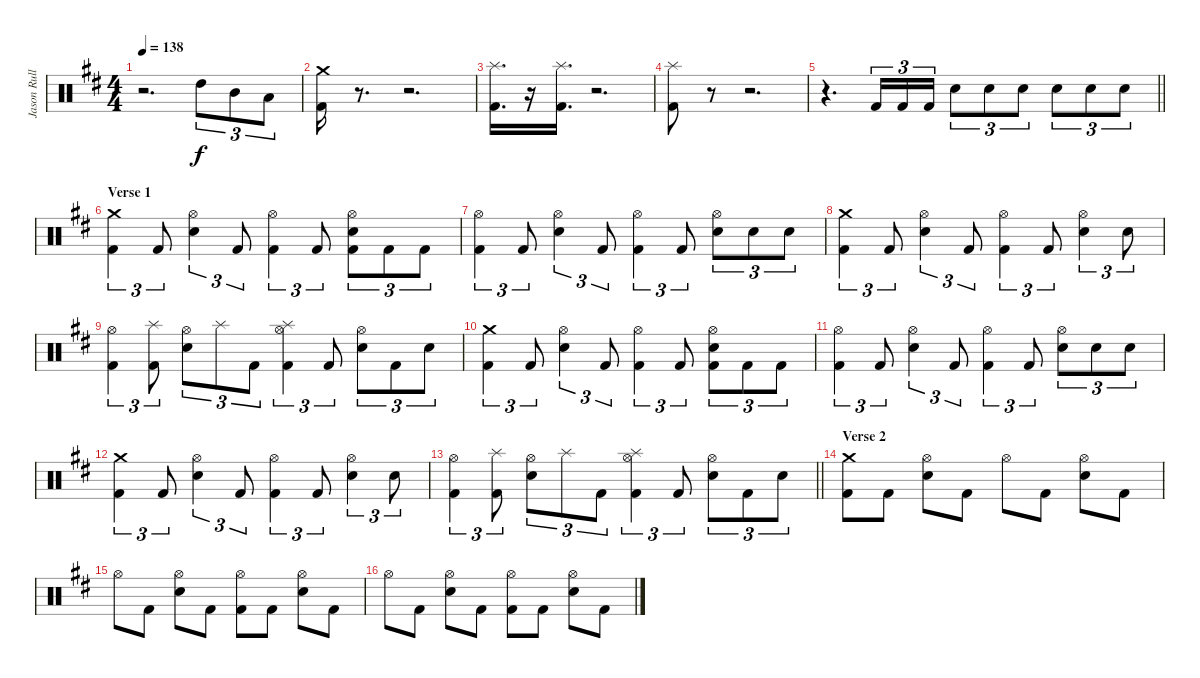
\track ("Jason Rullo (drums)" "Jason Rull") {instrument percussion}
\staff {score}
\articulation defaults
\ts (4 4)
\tempo 138
\clef neutral
\ks bminor
r.2{d dy f} "High Tom (hit)".8{tu (3 2)} "Mid Tom (hit)".8{tu (3 2)} "Low Tom (hit)".8{tu (3 2)} |
("Crash medium (hit)" "Kick (hit) 2").16 r.8{d} r.2{d} |
("Splash (hit)" "Kick (hit) 2").16{d} r.16 ("Splash (hit)" "Kick (hit) 2").16{d} r.2{d} |
("Splash (hit)" "Kick (hit) 2").8 r.8 r.2{d} |
\barLineRight lightlight
r.4{d} "Kick (hit) 2".16{tu (3 2)} "Kick (hit) 2".16{tu (3 2)} "Kick (hit) 2".16{tu (3 2)} "Electric Snare (hit)".8{tu (3 2)} "Electric Snare (hit)".8{tu (3 2)} "Electric Snare (hit)".8{tu (3 2)} "Electric Snare (hit)".8{tu (3 2)} "Electric Snare (hit)".8{tu (3 2)} "Electric Snare (hit)".8{tu (3 2)} |
\section ("" "Verse 1")
("Crash medium (hit)" "Kick (hit) 2").4{tu (3 2)} "Kick (hit) 2".8{tu (3 2)} ("Hi-Hat (open)" "Electric Snare (hit)").4{tu (3 2)} "Kick (hit) 2".8{tu (3 2)} ("Hi-Hat (open)" "Kick (hit) 2").4{tu (3 2)} "Kick (hit) 2".8{tu (3 2)} ("Hi-Hat (open)" "Electric Snare (hit)" "Kick (hit) 2").8{tu (3 2)} "Kick (hit) 2".8{tu (3 2)} "Kick (hit) 2".8{tu (3 2)} |
("Hi-Hat (open)" "Kick (hit) 2").4{tu (3 2)} "Kick (hit) 2".8{tu (3 2)} ("Hi-Hat (open)" "Electric Snare (hit)").4{tu (3 2)} "Kick (hit) 2".8{tu (3 2)} ("Hi-Hat (open)" "Kick (hit) 2").4{tu (3 2)} "Kick (hit) 2".8{tu (3 2)} ("Hi-Hat (open)" "Electric Snare (hit)").8{tu (3 2)} "Electric Snare (hit)".8{tu (3 2)} "Electric Snare (hit)".8{tu (3 2)} |
("Crash medium (hit)" "Kick (hit) 2").4{tu (3 2)} "Kick (hit) 2".8{tu (3 2)} ("Hi-Hat (open)" "Electric Snare (hit)").4{tu (3 2)} "Kick (hit) 2".8{tu (3 2)} ("Hi-Hat (open)" "Kick (hit) 2").4{tu (3 2)} "Kick (hit) 2".8{tu (3 2)} ("Hi-Hat (open)" "Electric Snare (hit)").4{tu (3 2)} "Electric Snare (hit)".8{tu (3 2)} |
("Hi-Hat (open)" "Kick (hit) 2").4{tu (3 2)} ("Splash (hit)" "Kick (hit) 2").8{tu (3 2)} ("Hi-Hat (open)" "Electric Snare (hit)").8{tu (3 2)} "Splash (hit)".8{tu (3 2)} "Kick (hit) 2".8{tu (3 2)} ("Splash (hit)" "Hi-Hat (open)" "Kick (hit) 2").4{tu (3 2)} "Kick (hit) 2".8{tu (3 2)} ("Electric Snare (hit)" "Hi-Hat (open)").8{tu (3 2)} "Kick (hit) 2".8{tu (3 2)} "Electric Snare (hit)".8{tu (3 2)} |
("Crash medium (hit)" "Kick (hit) 2").4{tu (3 2)} "Kick (hit) 2".8{tu (3 2)} ("Hi-Hat (open)" "Electric Snare (hit)").4{tu (3 2)} "Kick (hit) 2".8{tu (3 2)} ("Hi-Hat (open)" "Kick (hit) 2").4{tu (3 2)} "Kick (hit) 2".8{tu (3 2)} ("Hi-Hat (open)" "Electric Snare (hit)" "Kick (hit) 2").8{tu (3 2)} "Kick (hit) 2".8{tu (3 2)} "Kick (hit) 2".8{tu (3 2)} |
("Hi-Hat (open)" "Kick (hit) 2").4{tu (3 2)} "Kick (hit) 2".8{tu (3 2)} ("Hi-Hat (open)" "Electric Snare (hit)").4{tu (3 2)} "Kick (hit) 2".8{tu (3 2)} ("Hi-Hat (open)" "Kick (hit) 2").4{tu (3 2)} "Kick (hit) 2".8{tu (3 2)} ("Hi-Hat (open)" "Electric Snare (hit)").8{tu (3 2)} "Electric Snare (hit)".8{tu (3 2)} "Electric Snare (hit)".8{tu (3 2)} |
("Crash medium (hit)" "Kick (hit) 2").4{tu (3 2)} "Kick (hit) 2".8{tu (3 2)} ("Hi-Hat (open)" "Electric Snare (hit)").4{tu (3 2)} "Kick (hit) 2".8{tu (3 2)} ("Hi-Hat (open)" "Kick (hit) 2").4{tu (3 2)} "Kick (hit) 2".8{tu (3 2)} ("Hi-Hat (open)" "Electric Snare (hit)").4{tu (3 2)} "Electric Snare (hit)".8{tu (3 2)} |
\barLineRight lightlight
("Hi-Hat (open)" "Kick (hit) 2").4{tu (3 2)} ("Splash (hit)" "Kick (hit) 2").8{tu (3 2)} ("Hi-Hat (open)" "Electric Snare (hit)").8{tu (3 2)} "Splash (hit)".8{tu (3 2)} "Kick (hit) 2".8{tu (3 2)} ("Splash (hit)" "Hi-Hat (open)" "Kick (hit) 2").4{tu (3 2)} "Kick (hit) 2".8{tu (3 2)} ("Electric Snare (hit)" "Hi-Hat (open)").8{tu (3 2)} "Kick (hit) 2".8{tu (3 2)} "Electric Snare (hit)".8{tu (3 2)} |
\section ("" "Verse 2")
("Crash medium (hit)" "Kick (hit) 2").8 "Kick (hit) 2".8 ("Hi-Hat (open)" "Electric Snare (hit)").8 "Kick (hit) 2".8 "Hi-Hat (open)".8 "Kick (hit) 2".8 ("Hi-Hat (open)" "Electric Snare (hit)").8 "Kick (hit) 2".8 |
"Hi-Hat (open)".8 "Kick (hit) 2".8 ("Hi-Hat (open)" "Electric Snare (hit)").8 "Kick (hit) 2".8 ("Kick (hit) 2" "Hi-Hat (open)").8 "Kick (hit) 2".8 ("Hi-Hat (open)" "Electric Snare (hit)").8 "Kick (hit) 2".8 |
"Hi-Hat (open)".8 "Kick (hit) 2".8 ("Hi-Hat (open)" "Electric Snare (hit)").8 "Kick (hit) 2".8 ("Kick (hit) 2" "Hi-Hat (open)").8 "Kick (hit) 2".8 ("Hi-Hat (open)" "Electric Snare (hit)").8 "Kick (hit) 2".8
